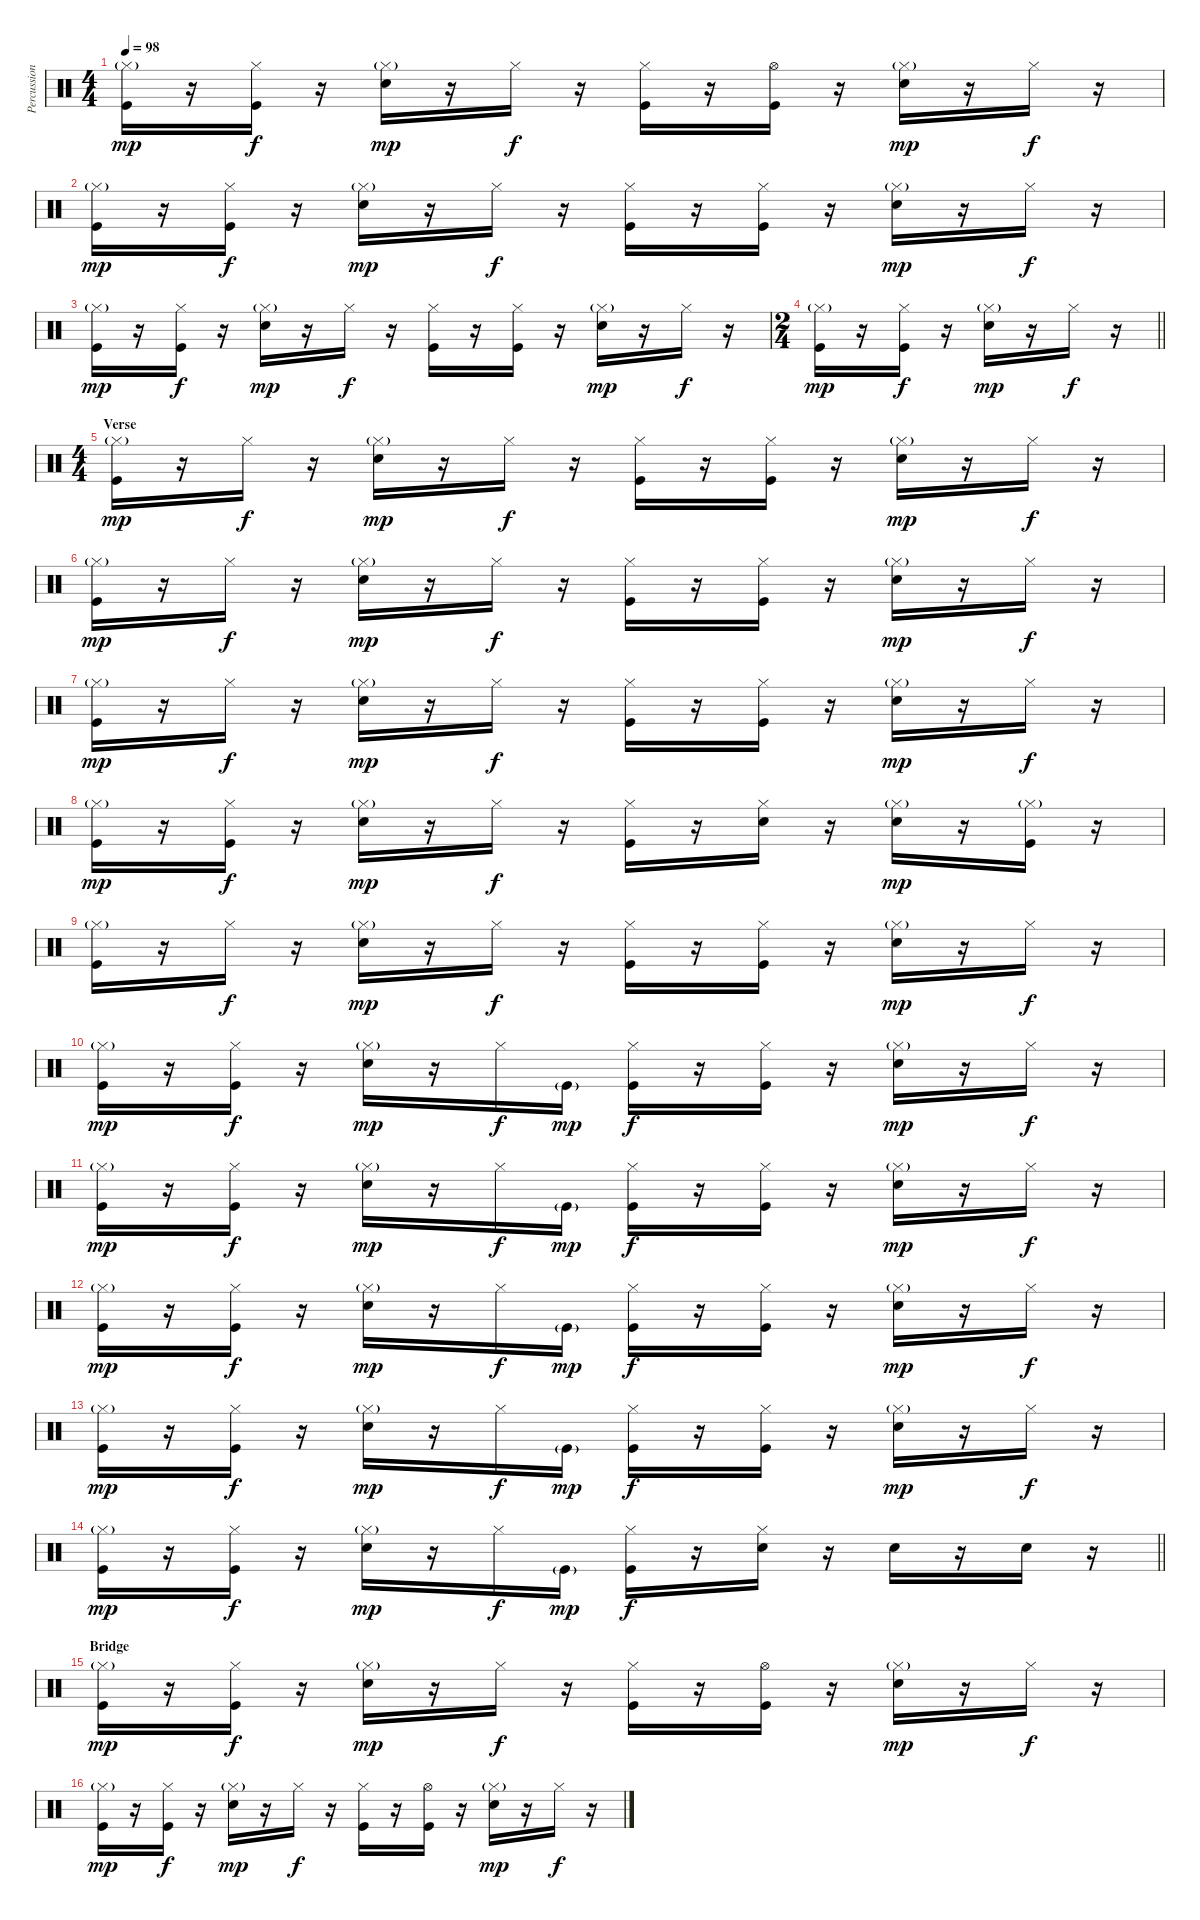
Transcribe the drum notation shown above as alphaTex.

\track ("Percussion" "Percussion") {instrument percussion}
\staff {score}
\articulation defaults
\ts (4 4)
\tempo 98
\clef neutral
\ks c
("Hi-Hat (closed)"{g} "Kick (hit)").16{dy mp} r.16 ("Hi-Hat (closed)" "Kick (hit)").16{dy f} r.16 ("Hi-Hat (closed)"{g} "Snare (hit) 2").16{dy mp} r.16 "Hi-Hat (closed)".16{dy f} r.16 ("Hi-Hat (closed)" "Kick (hit)").16 r.16 ("Hi-Hat (open)" "Kick (hit)").16 r.16 ("Hi-Hat (closed)"{g} "Snare (hit) 2").16{dy mp} r.16 "Hi-Hat (closed)".16{dy f} r.16 |
("Hi-Hat (closed)"{g} "Kick (hit)").16{dy mp} r.16 ("Hi-Hat (closed)" "Kick (hit)").16{dy f} r.16 ("Hi-Hat (closed)"{g} "Snare (hit) 2").16{dy mp} r.16 "Hi-Hat (closed)".16{dy f} r.16 ("Hi-Hat (closed)" "Kick (hit)").16 r.16 ("Hi-Hat (closed)" "Kick (hit)").16 r.16 ("Hi-Hat (closed)"{g} "Snare (hit) 2").16{dy mp} r.16 "Hi-Hat (closed)".16{dy f} r.16 |
("Hi-Hat (closed)"{g} "Kick (hit)").16{dy mp} r.16 ("Hi-Hat (closed)" "Kick (hit)").16{dy f} r.16 ("Hi-Hat (closed)"{g} "Snare (hit) 2").16{dy mp} r.16 "Hi-Hat (closed)".16{dy f} r.16 ("Hi-Hat (closed)" "Kick (hit)").16 r.16 ("Hi-Hat (closed)" "Kick (hit)").16 r.16 ("Hi-Hat (closed)"{g} "Snare (hit) 2").16{dy mp} r.16 "Hi-Hat (closed)".16{dy f} r.16 |
\ts (2 4)
\barLineRight lightlight
("Hi-Hat (closed)"{g} "Kick (hit)").16{dy mp} r.16 ("Hi-Hat (closed)" "Kick (hit)").16{dy f} r.16 ("Hi-Hat (closed)"{g} "Snare (hit) 2").16{dy mp} r.16 "Hi-Hat (closed)".16{dy f} r.16 |
\ts (4 4)
\section ("" "Verse")
("Hi-Hat (closed)"{g} "Kick (hit)").16{dy mp} r.16 "Hi-Hat (closed)".16{dy f} r.16 ("Hi-Hat (closed)"{g} "Snare (hit) 2").16{dy mp} r.16 "Hi-Hat (closed)".16{dy f} r.16 ("Hi-Hat (closed)" "Kick (hit)").16 r.16 ("Hi-Hat (closed)" "Kick (hit)").16 r.16 ("Hi-Hat (closed)"{g} "Snare (hit) 2").16{dy mp} r.16 "Hi-Hat (closed)".16{dy f} r.16 |
("Hi-Hat (closed)"{g} "Kick (hit)").16{dy mp} r.16 "Hi-Hat (closed)".16{dy f} r.16 ("Hi-Hat (closed)"{g} "Snare (hit) 2").16{dy mp} r.16 "Hi-Hat (closed)".16{dy f} r.16 ("Hi-Hat (closed)" "Kick (hit)").16 r.16 ("Hi-Hat (closed)" "Kick (hit)").16 r.16 ("Hi-Hat (closed)"{g} "Snare (hit) 2").16{dy mp} r.16 "Hi-Hat (closed)".16{dy f} r.16 |
("Hi-Hat (closed)"{g} "Kick (hit)").16{dy mp} r.16 "Hi-Hat (closed)".16{dy f} r.16 ("Hi-Hat (closed)"{g} "Snare (hit) 2").16{dy mp} r.16 "Hi-Hat (closed)".16{dy f} r.16 ("Hi-Hat (closed)" "Kick (hit)").16 r.16 ("Hi-Hat (closed)" "Kick (hit)").16 r.16 ("Hi-Hat (closed)"{g} "Snare (hit) 2").16{dy mp} r.16 "Hi-Hat (closed)".16{dy f} r.16 |
("Hi-Hat (closed)"{g} "Kick (hit)").16{dy mp} r.16 ("Hi-Hat (closed)" "Kick (hit)").16{dy f} r.16 ("Hi-Hat (closed)"{g} "Snare (hit) 2").16{dy mp} r.16 "Hi-Hat (closed)".16{dy f} r.16 ("Hi-Hat (closed)" "Kick (hit)").16 r.16 ("Hi-Hat (closed)" "Snare (hit) 2").16 r.16 ("Hi-Hat (closed)"{g} "Snare (hit) 2").16{dy mp} r.16 ("Hi-Hat (closed)"{g} "Kick (hit)").16 r.16 |
("Hi-Hat (closed)"{g} "Kick (hit)").16 r.16 "Hi-Hat (closed)".16{dy f} r.16 ("Hi-Hat (closed)"{g} "Snare (hit) 2").16{dy mp} r.16 "Hi-Hat (closed)".16{dy f} r.16 ("Hi-Hat (closed)" "Kick (hit)").16 r.16 ("Hi-Hat (closed)" "Kick (hit)").16 r.16 ("Hi-Hat (closed)"{g} "Snare (hit) 2").16{dy mp} r.16 "Hi-Hat (closed)".16{dy f} r.16 |
("Hi-Hat (closed)"{g} "Kick (hit)").16{dy mp} r.16 ("Hi-Hat (closed)" "Kick (hit)").16{dy f} r.16 ("Hi-Hat (closed)"{g} "Snare (hit) 2").16{dy mp} r.16 "Hi-Hat (closed)".16{dy f} "Kick (hit)"{g}.16{dy mp} ("Hi-Hat (closed)" "Kick (hit)").16{dy f} r.16 ("Hi-Hat (closed)" "Kick (hit)").16 r.16 ("Hi-Hat (closed)"{g} "Snare (hit) 2").16{dy mp} r.16 "Hi-Hat (closed)".16{dy f} r.16 |
("Hi-Hat (closed)"{g} "Kick (hit)").16{dy mp} r.16 ("Hi-Hat (closed)" "Kick (hit)").16{dy f} r.16 ("Hi-Hat (closed)"{g} "Snare (hit) 2").16{dy mp} r.16 "Hi-Hat (closed)".16{dy f} "Kick (hit)"{g}.16{dy mp} ("Hi-Hat (closed)" "Kick (hit)").16{dy f} r.16 ("Hi-Hat (closed)" "Kick (hit)").16 r.16 ("Hi-Hat (closed)"{g} "Snare (hit) 2").16{dy mp} r.16 "Hi-Hat (closed)".16{dy f} r.16 |
("Hi-Hat (closed)"{g} "Kick (hit)").16{dy mp} r.16 ("Hi-Hat (closed)" "Kick (hit)").16{dy f} r.16 ("Hi-Hat (closed)"{g} "Snare (hit) 2").16{dy mp} r.16 "Hi-Hat (closed)".16{dy f} "Kick (hit)"{g}.16{dy mp} ("Hi-Hat (closed)" "Kick (hit)").16{dy f} r.16 ("Hi-Hat (closed)" "Kick (hit)").16 r.16 ("Hi-Hat (closed)"{g} "Snare (hit) 2").16{dy mp} r.16 "Hi-Hat (closed)".16{dy f} r.16 |
("Hi-Hat (closed)"{g} "Kick (hit)").16{dy mp} r.16 ("Hi-Hat (closed)" "Kick (hit)").16{dy f} r.16 ("Hi-Hat (closed)"{g} "Snare (hit) 2").16{dy mp} r.16 "Hi-Hat (closed)".16{dy f} "Kick (hit)"{g}.16{dy mp} ("Hi-Hat (closed)" "Kick (hit)").16{dy f} r.16 ("Hi-Hat (closed)" "Kick (hit)").16 r.16 ("Hi-Hat (closed)"{g} "Snare (hit) 2").16{dy mp} r.16 "Hi-Hat (closed)".16{dy f} r.16 |
\barLineRight lightlight
("Hi-Hat (closed)"{g} "Kick (hit)").16{dy mp} r.16 ("Hi-Hat (closed)" "Kick (hit)").16{dy f} r.16 ("Hi-Hat (closed)"{g} "Snare (hit) 2").16{dy mp} r.16 "Hi-Hat (closed)".16{dy f} "Kick (hit)"{g}.16{dy mp} ("Hi-Hat (closed)" "Kick (hit)").16{dy f} r.16 ("Hi-Hat (closed)" "Snare (hit) 2").16 r.16 "Snare (hit) 2".16 r.16 "Snare (hit) 2".16 r.16 |
\section ("" "Bridge")
("Hi-Hat (closed)"{g} "Kick (hit)").16{dy mp} r.16 ("Hi-Hat (closed)" "Kick (hit)").16{dy f} r.16 ("Hi-Hat (closed)"{g} "Snare (hit) 2").16{dy mp} r.16 "Hi-Hat (closed)".16{dy f} r.16 ("Hi-Hat (closed)" "Kick (hit)").16 r.16 ("Hi-Hat (open)" "Kick (hit)").16 r.16 ("Hi-Hat (closed)"{g} "Snare (hit) 2").16{dy mp} r.16 "Hi-Hat (closed)".16{dy f} r.16 |
("Hi-Hat (closed)"{g} "Kick (hit)").16{dy mp} r.16 ("Hi-Hat (closed)" "Kick (hit)").16{dy f} r.16 ("Hi-Hat (closed)"{g} "Snare (hit) 2").16{dy mp} r.16 "Hi-Hat (closed)".16{dy f} r.16 ("Hi-Hat (closed)" "Kick (hit)").16 r.16 ("Hi-Hat (open)" "Kick (hit)").16 r.16 ("Hi-Hat (closed)"{g} "Snare (hit) 2").16{dy mp} r.16 "Hi-Hat (closed)".16{dy f} r.16
